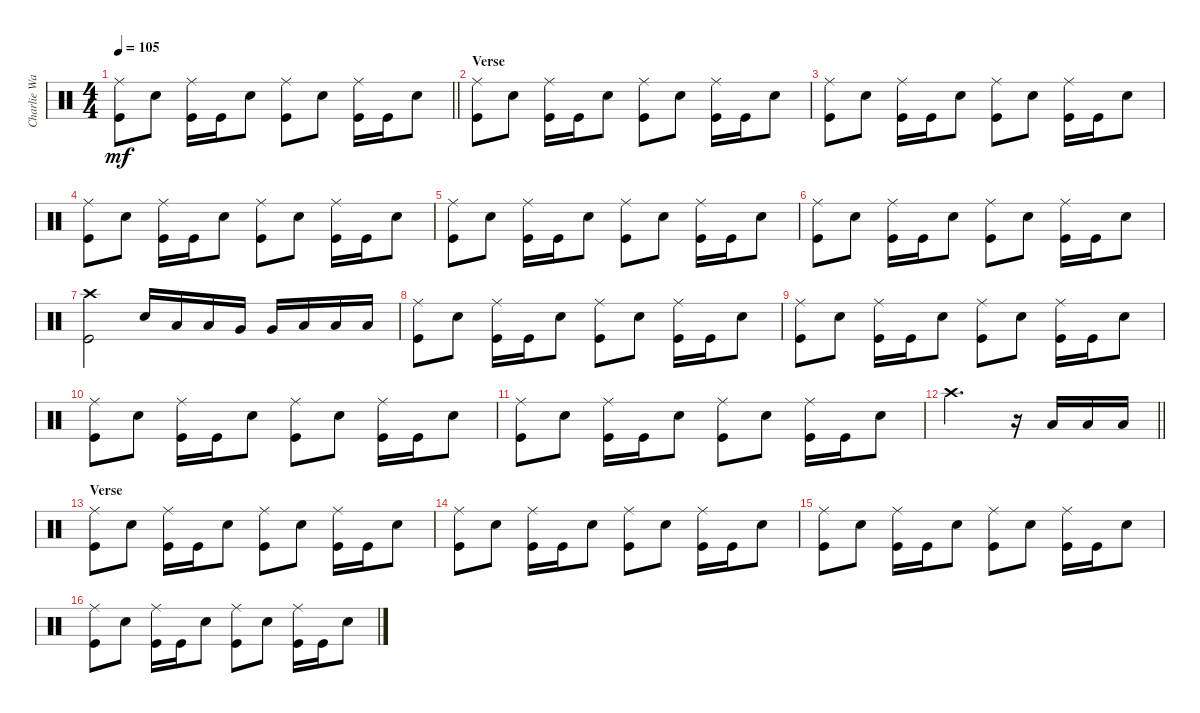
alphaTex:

\track ("Charlie Watts" "Charlie Wa") {instrument percussion}
\staff {score}
\articulation defaults
\ts (4 4)
\tempo 105
\clef neutral
\barLineRight lightlight
\ks c
("Ride (middle)" "Kick (hit)").8{dy mf} "Snare (hit) 2".8 ("Ride (middle)" "Kick (hit)").16 "Kick (hit)".16 "Snare (hit) 2".8 ("Ride (middle)" "Kick (hit)").8 "Snare (hit) 2".8 ("Ride (middle)" "Kick (hit)").16 "Kick (hit)".16 "Snare (hit) 2".8 |
\section ("" "Verse")
("Ride (middle)" "Kick (hit)").8 "Snare (hit) 2".8 ("Ride (middle)" "Kick (hit)").16 "Kick (hit)".16 "Snare (hit) 2".8 ("Ride (middle)" "Kick (hit)").8 "Snare (hit) 2".8 ("Ride (middle)" "Kick (hit)").16 "Kick (hit)".16 "Snare (hit) 2".8 |
("Ride (middle)" "Kick (hit)").8 "Snare (hit) 2".8 ("Ride (middle)" "Kick (hit)").16 "Kick (hit)".16 "Snare (hit) 2".8 ("Ride (middle)" "Kick (hit)").8 "Snare (hit) 2".8 ("Ride (middle)" "Kick (hit)").16 "Kick (hit)".16 "Snare (hit) 2".8 |
("Ride (middle)" "Kick (hit)").8 "Snare (hit) 2".8 ("Ride (middle)" "Kick (hit)").16 "Kick (hit)".16 "Snare (hit) 2".8 ("Ride (middle)" "Kick (hit)").8 "Snare (hit) 2".8 ("Ride (middle)" "Kick (hit)").16 "Kick (hit)".16 "Snare (hit) 2".8 |
("Ride (middle)" "Kick (hit)").8 "Snare (hit) 2".8 ("Ride (middle)" "Kick (hit)").16 "Kick (hit)".16 "Snare (hit) 2".8 ("Ride (middle)" "Kick (hit)").8 "Snare (hit) 2".8 ("Ride (middle)" "Kick (hit)").16 "Kick (hit)".16 "Snare (hit) 2".8 |
("Ride (middle)" "Kick (hit)").8 "Snare (hit) 2".8 ("Ride (middle)" "Kick (hit)").16 "Kick (hit)".16 "Snare (hit) 2".8 ("Ride (middle)" "Kick (hit)").8 "Snare (hit) 2".8 ("Ride (middle)" "Kick (hit)").16 "Kick (hit)".16 "Snare (hit) 2".8 |
("Crash high (hit)" "Kick (hit)").2 "Snare (hit) 2".16 "Low Tom (hit)".16 "Low Tom (hit)".16 "Very Low Tom (hit)".16 "Very Low Tom (hit)".16 "Low Floor Tom (hit)".16 "Low Floor Tom (hit)".16 "Low Floor Tom (hit)".16 |
("Ride (middle)" "Kick (hit)").8 "Snare (hit) 2".8 ("Ride (middle)" "Kick (hit)").16 "Kick (hit)".16 "Snare (hit) 2".8 ("Ride (middle)" "Kick (hit)").8 "Snare (hit) 2".8 ("Ride (middle)" "Kick (hit)").16 "Kick (hit)".16 "Snare (hit) 2".8 |
("Ride (middle)" "Kick (hit)").8 "Snare (hit) 2".8 ("Ride (middle)" "Kick (hit)").16 "Kick (hit)".16 "Snare (hit) 2".8 ("Ride (middle)" "Kick (hit)").8 "Snare (hit) 2".8 ("Ride (middle)" "Kick (hit)").16 "Kick (hit)".16 "Snare (hit) 2".8 |
("Ride (middle)" "Kick (hit)").8 "Snare (hit) 2".8 ("Ride (middle)" "Kick (hit)").16 "Kick (hit)".16 "Snare (hit) 2".8 ("Ride (middle)" "Kick (hit)").8 "Snare (hit) 2".8 ("Ride (middle)" "Kick (hit)").16 "Kick (hit)".16 "Snare (hit) 2".8 |
("Ride (middle)" "Kick (hit)").8 "Snare (hit) 2".8 ("Ride (middle)" "Kick (hit)").16 "Kick (hit)".16 "Snare (hit) 2".8 ("Ride (middle)" "Kick (hit)").8 "Snare (hit) 2".8 ("Ride (middle)" "Kick (hit)").16 "Kick (hit)".16 "Snare (hit) 2".8 |
\barLineRight lightlight "Crash high (hit)".2{d}
r.16 "Low Tom (hit)".16 "Low Tom (hit)".16 "Low Tom (hit)".16 |
\section ("" "Verse")
("Ride (middle)" "Kick (hit)").8 "Snare (hit) 2".8 ("Ride (middle)" "Kick (hit)").16 "Kick (hit)".16 "Snare (hit) 2".8 ("Ride (middle)" "Kick (hit)").8 "Snare (hit) 2".8 ("Ride (middle)" "Kick (hit)").16 "Kick (hit)".16 "Snare (hit) 2".8 |
("Ride (middle)" "Kick (hit)").8 "Snare (hit) 2".8 ("Ride (middle)" "Kick (hit)").16 "Kick (hit)".16 "Snare (hit) 2".8 ("Ride (middle)" "Kick (hit)").8 "Snare (hit) 2".8 ("Ride (middle)" "Kick (hit)").16 "Kick (hit)".16 "Snare (hit) 2".8 |
("Ride (middle)" "Kick (hit)").8 "Snare (hit) 2".8 ("Ride (middle)" "Kick (hit)").16 "Kick (hit)".16 "Snare (hit) 2".8 ("Ride (middle)" "Kick (hit)").8 "Snare (hit) 2".8 ("Ride (middle)" "Kick (hit)").16 "Kick (hit)".16 "Snare (hit) 2".8 |
("Ride (middle)" "Kick (hit)").8 "Snare (hit) 2".8 ("Ride (middle)" "Kick (hit)").16 "Kick (hit)".16 "Snare (hit) 2".8 ("Ride (middle)" "Kick (hit)").8 "Snare (hit) 2".8 ("Ride (middle)" "Kick (hit)").16 "Kick (hit)".16 "Snare (hit) 2".8
